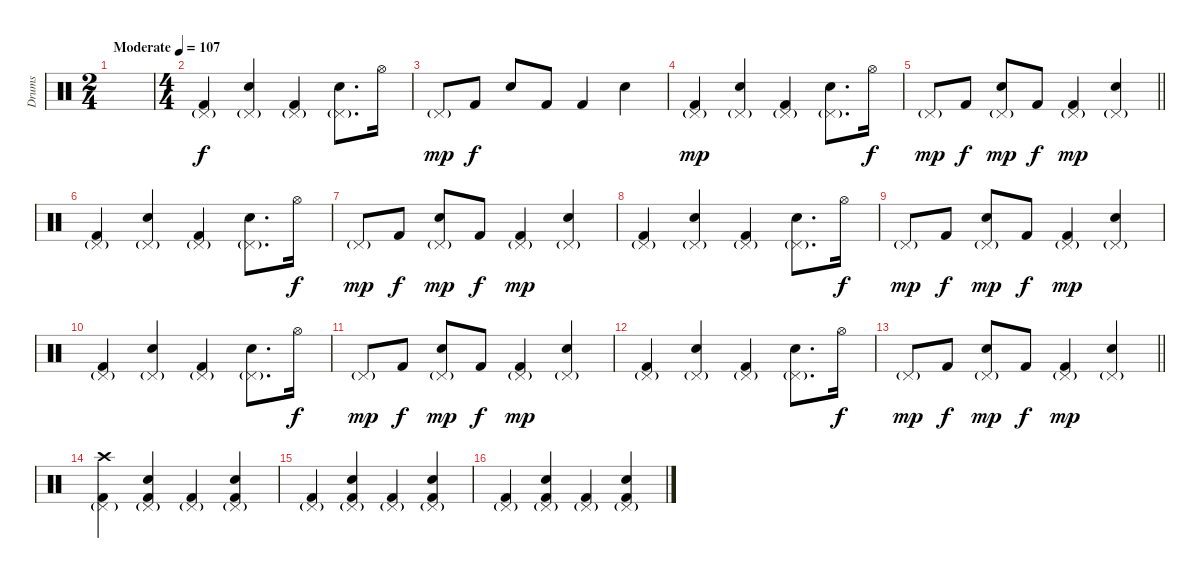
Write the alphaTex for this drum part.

\track ("Drums" "Drums") {instrument percussion}
\staff {score}
\articulation defaults
\ts (2 4)
\tempo (107 "Moderate")
\clef neutral
\ks c
|
\ts (4 4)
("Pedal Hi-Hat (hit)"{g} "Kick (hit) 2").4 ("Pedal Hi-Hat (hit)"{g} "Snare (hit) 2").4 ("Pedal Hi-Hat (hit)"{g} "Kick (hit) 2").4 ("Pedal Hi-Hat (hit)"{g} "Snare (hit) 2").8{d} "Hi-Hat (open)".16{dy f} |
"Pedal Hi-Hat (hit)"{g}.8{dy mp} "Kick (hit) 2".8{dy f} "Snare (hit) 2".8 "Kick (hit) 2".8 "Kick (hit) 2".4 "Snare (hit) 2".4 |
("Pedal Hi-Hat (hit)"{g} "Kick (hit) 2").4{dy mp} ("Pedal Hi-Hat (hit)"{g} "Snare (hit) 2").4 ("Pedal Hi-Hat (hit)"{g} "Kick (hit) 2").4 ("Pedal Hi-Hat (hit)"{g} "Snare (hit) 2").8{d} "Hi-Hat (open)".16{dy f} |
\barLineRight lightlight "Pedal Hi-Hat (hit)"{g}.8{dy mp} "Kick (hit) 2".8{dy f}
("Pedal Hi-Hat (hit)"{g} "Snare (hit) 2").8{dy mp} "Kick (hit) 2".8{dy f} ("Pedal Hi-Hat (hit)"{g} "Kick (hit) 2").4{dy mp} ("Pedal Hi-Hat (hit)"{g} "Snare (hit) 2").4 |
("Pedal Hi-Hat (hit)"{g} "Kick (hit) 2").4 ("Pedal Hi-Hat (hit)"{g} "Snare (hit) 2").4 ("Pedal Hi-Hat (hit)"{g} "Kick (hit) 2").4 ("Pedal Hi-Hat (hit)"{g} "Snare (hit) 2").8{d} "Hi-Hat (open)".16{dy f} |
"Pedal Hi-Hat (hit)"{g}.8{dy mp} "Kick (hit) 2".8{dy f} ("Pedal Hi-Hat (hit)"{g} "Snare (hit) 2").8{dy mp} "Kick (hit) 2".8{dy f} ("Pedal Hi-Hat (hit)"{g} "Kick (hit) 2").4{dy mp} ("Pedal Hi-Hat (hit)"{g} "Snare (hit) 2").4 |
("Pedal Hi-Hat (hit)"{g} "Kick (hit) 2").4 ("Pedal Hi-Hat (hit)"{g} "Snare (hit) 2").4 ("Pedal Hi-Hat (hit)"{g} "Kick (hit) 2").4 ("Pedal Hi-Hat (hit)"{g} "Snare (hit) 2").8{d} "Hi-Hat (open)".16{dy f} |
"Pedal Hi-Hat (hit)"{g}.8{dy mp} "Kick (hit) 2".8{dy f} ("Pedal Hi-Hat (hit)"{g} "Snare (hit) 2").8{dy mp} "Kick (hit) 2".8{dy f} ("Pedal Hi-Hat (hit)"{g} "Kick (hit) 2").4{dy mp} ("Pedal Hi-Hat (hit)"{g} "Snare (hit) 2").4 |
("Pedal Hi-Hat (hit)"{g} "Kick (hit) 2").4 ("Pedal Hi-Hat (hit)"{g} "Snare (hit) 2").4 ("Pedal Hi-Hat (hit)"{g} "Kick (hit) 2").4 ("Pedal Hi-Hat (hit)"{g} "Snare (hit) 2").8{d} "Hi-Hat (open)".16{dy f} |
"Pedal Hi-Hat (hit)"{g}.8{dy mp} "Kick (hit) 2".8{dy f} ("Pedal Hi-Hat (hit)"{g} "Snare (hit) 2").8{dy mp} "Kick (hit) 2".8{dy f} ("Pedal Hi-Hat (hit)"{g} "Kick (hit) 2").4{dy mp} ("Pedal Hi-Hat (hit)"{g} "Snare (hit) 2").4 |
("Pedal Hi-Hat (hit)"{g} "Kick (hit) 2").4 ("Pedal Hi-Hat (hit)"{g} "Snare (hit) 2").4 ("Pedal Hi-Hat (hit)"{g} "Kick (hit) 2").4 ("Pedal Hi-Hat (hit)"{g} "Snare (hit) 2").8{d} "Hi-Hat (open)".16{dy f} |
\barLineRight lightlight "Pedal Hi-Hat (hit)"{g}.8{dy mp} "Kick (hit) 2".8{dy f}
("Pedal Hi-Hat (hit)"{g} "Snare (hit) 2").8{dy mp} "Kick (hit) 2".8{dy f} ("Pedal Hi-Hat (hit)"{g} "Kick (hit) 2").4{dy mp} ("Pedal Hi-Hat (hit)"{g} "Snare (hit) 2").4 |
("Pedal Hi-Hat (hit)"{g} "Crash high (hit)" "Kick (hit) 2").4 ("Pedal Hi-Hat (hit)"{g} "Snare (hit) 2" "Kick (hit) 2").4 ("Pedal Hi-Hat (hit)"{g} "Kick (hit) 2").4 ("Pedal Hi-Hat (hit)"{g} "Snare (hit) 2" "Kick (hit) 2").4 |
("Pedal Hi-Hat (hit)"{g} "Kick (hit) 2").4 ("Pedal Hi-Hat (hit)"{g} "Snare (hit) 2" "Kick (hit) 2").4 ("Pedal Hi-Hat (hit)"{g} "Kick (hit) 2").4 ("Pedal Hi-Hat (hit)"{g} "Snare (hit) 2" "Kick (hit) 2").4 |
("Pedal Hi-Hat (hit)"{g} "Kick (hit) 2").4 ("Pedal Hi-Hat (hit)"{g} "Snare (hit) 2" "Kick (hit) 2").4 ("Pedal Hi-Hat (hit)"{g} "Kick (hit) 2").4 ("Pedal Hi-Hat (hit)"{g} "Snare (hit) 2" "Kick (hit) 2").4
